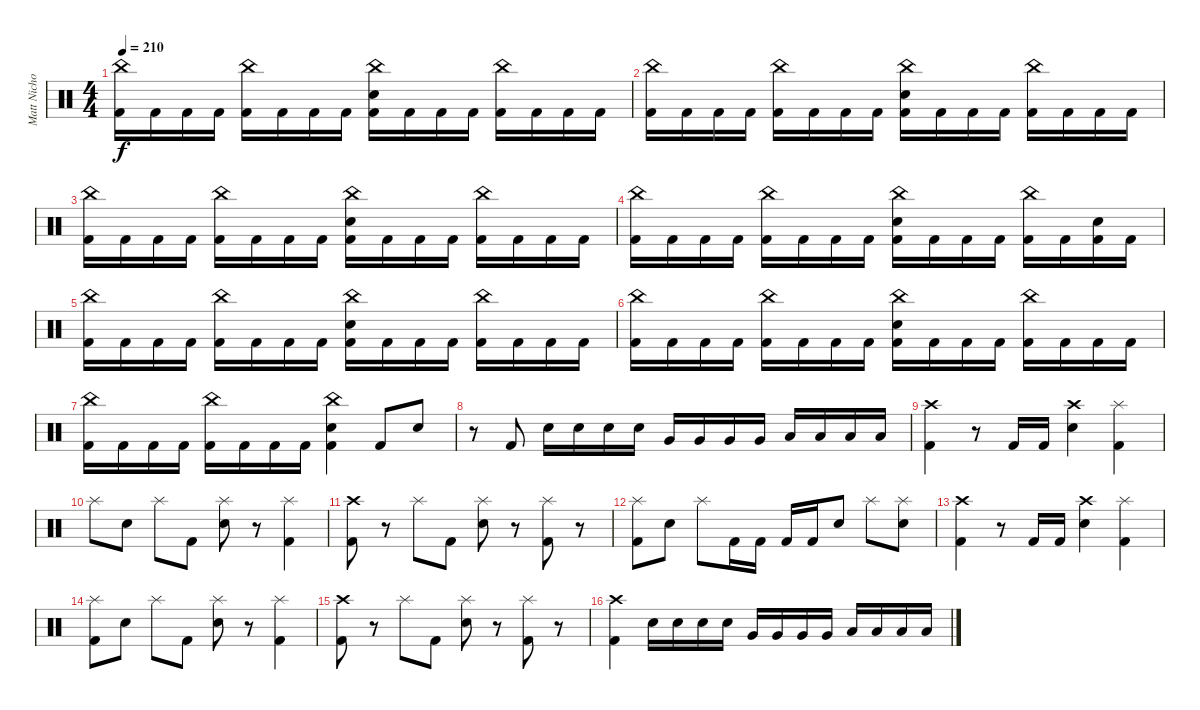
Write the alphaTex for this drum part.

\track ("Matt Nicholls" "Matt Nicho") {instrument percussion}
\staff {score}
\articulation defaults
\ts (4 4)
\tempo 210
\clef neutral
\ks c
("China (hit)" "Kick (hit) 2").16{dy f} "Kick (hit) 2".16 "Kick (hit) 2".16 "Kick (hit) 2".16 ("China (hit)" "Kick (hit) 2").16 "Kick (hit) 2".16 "Kick (hit) 2".16 "Kick (hit) 2".16 ("China (hit)" "Snare (hit) 2" "Kick (hit) 2").16 "Kick (hit) 2".16 "Kick (hit) 2".16 "Kick (hit) 2".16 ("China (hit)" "Kick (hit) 2").16 "Kick (hit) 2".16 "Kick (hit) 2".16 "Kick (hit) 2".16 |
("China (hit)" "Kick (hit) 2").16 "Kick (hit) 2".16 "Kick (hit) 2".16 "Kick (hit) 2".16 ("China (hit)" "Kick (hit) 2").16 "Kick (hit) 2".16 "Kick (hit) 2".16 "Kick (hit) 2".16 ("China (hit)" "Snare (hit) 2" "Kick (hit) 2").16 "Kick (hit) 2".16 "Kick (hit) 2".16 "Kick (hit) 2".16 ("China (hit)" "Kick (hit) 2").16 "Kick (hit) 2".16 "Kick (hit) 2".16 "Kick (hit) 2".16 |
("China (hit)" "Kick (hit) 2").16 "Kick (hit) 2".16 "Kick (hit) 2".16 "Kick (hit) 2".16 ("China (hit)" "Kick (hit) 2").16 "Kick (hit) 2".16 "Kick (hit) 2".16 "Kick (hit) 2".16 ("China (hit)" "Snare (hit) 2" "Kick (hit) 2").16 "Kick (hit) 2".16 "Kick (hit) 2".16 "Kick (hit) 2".16 ("China (hit)" "Kick (hit) 2").16 "Kick (hit) 2".16 "Kick (hit) 2".16 "Kick (hit) 2".16 |
("China (hit)" "Kick (hit) 2").16 "Kick (hit) 2".16 "Kick (hit) 2".16 "Kick (hit) 2".16 ("China (hit)" "Kick (hit) 2").16 "Kick (hit) 2".16 "Kick (hit) 2".16 "Kick (hit) 2".16 ("China (hit)" "Snare (hit) 2" "Kick (hit) 2").16 "Kick (hit) 2".16 "Kick (hit) 2".16 "Kick (hit) 2".16 ("China (hit)" "Kick (hit) 2").16 "Kick (hit) 2".16 ("Snare (hit) 2" "Kick (hit) 2").16 "Kick (hit) 2".16 |
("China (hit)" "Kick (hit) 2").16 "Kick (hit) 2".16 "Kick (hit) 2".16 "Kick (hit) 2".16 ("China (hit)" "Kick (hit) 2").16 "Kick (hit) 2".16 "Kick (hit) 2".16 "Kick (hit) 2".16 ("China (hit)" "Snare (hit) 2" "Kick (hit) 2").16 "Kick (hit) 2".16 "Kick (hit) 2".16 "Kick (hit) 2".16 ("China (hit)" "Kick (hit) 2").16 "Kick (hit) 2".16 "Kick (hit) 2".16 "Kick (hit) 2".16 |
("China (hit)" "Kick (hit) 2").16 "Kick (hit) 2".16 "Kick (hit) 2".16 "Kick (hit) 2".16 ("China (hit)" "Kick (hit) 2").16 "Kick (hit) 2".16 "Kick (hit) 2".16 "Kick (hit) 2".16 ("China (hit)" "Snare (hit) 2" "Kick (hit) 2").16 "Kick (hit) 2".16 "Kick (hit) 2".16 "Kick (hit) 2".16 ("China (hit)" "Kick (hit) 2").16 "Kick (hit) 2".16 "Kick (hit) 2".16 "Kick (hit) 2".16 |
("China (hit)" "Kick (hit) 2").16 "Kick (hit) 2".16 "Kick (hit) 2".16 "Kick (hit) 2".16 ("China (hit)" "Kick (hit) 2").16 "Kick (hit) 2".16 "Kick (hit) 2".16 "Kick (hit) 2".16 ("China (hit)" "Snare (hit) 2" "Kick (hit) 2").4 "Kick (hit) 2".8 "Snare (hit) 2".8 |
r.8 "Kick (hit) 2".8 "Snare (hit) 2".16 "Snare (hit) 2".16 "Snare (hit) 2".16 "Snare (hit) 2".16 "Very Low Tom (hit)".16 "Very Low Tom (hit)".16 "Very Low Tom (hit)".16 "Very Low Tom (hit)".16 "Low Floor Tom (hit)".16 "Low Floor Tom (hit)".16 "Low Floor Tom (hit)".16 "Low Floor Tom (hit)".16 |
("Crash high (hit)" "Kick (hit) 2").4 r.8 "Kick (hit) 2".16 "Kick (hit) 2".16 ("Crash high (hit)" "Snare (hit) 2").4 ("Splash (hit)" "Kick (hit) 2").4 |
"Splash (hit)".8 "Snare (hit) 2".8 "Splash (hit)".8 "Kick (hit) 2".8 ("Splash (hit)" "Snare (hit) 2").8 r.8 ("Splash (hit)" "Kick (hit) 2").4 |
("Crash high (hit)" "Kick (hit) 2").8 r.8 "Splash (hit)".8 "Kick (hit) 2".8 ("Splash (hit)" "Snare (hit) 2").8 r.8 ("Splash (hit)" "Kick (hit) 2").8 r.8 |
("Splash (hit)" "Kick (hit) 2").8 "Snare (hit) 2".8 "Splash (hit)".8 "Kick (hit) 2".16 "Kick (hit) 2".16 "Kick (hit) 2".16 "Kick (hit) 2".16 "Snare (hit) 2".8 "Splash (hit)".8 ("Splash (hit)" "Snare (hit) 2").8 |
("Crash high (hit)" "Kick (hit) 2").4 r.8 "Kick (hit) 2".16 "Kick (hit) 2".16 ("Crash high (hit)" "Snare (hit) 2").4 ("Splash (hit)" "Kick (hit) 2").4 |
("Splash (hit)" "Kick (hit) 2").8 "Snare (hit) 2".8 "Splash (hit)".8 "Kick (hit) 2".8 ("Splash (hit)" "Snare (hit) 2").8 r.8 ("Splash (hit)" "Kick (hit) 2").4 |
("Crash high (hit)" "Kick (hit) 2").8 r.8 "Splash (hit)".8 "Kick (hit) 2".8 ("Splash (hit)" "Snare (hit) 2").8 r.8 ("Splash (hit)" "Kick (hit) 2").8 r.8 |
("Crash high (hit)" "Kick (hit) 2").4 "Snare (hit) 2".16 "Snare (hit) 2".16 "Snare (hit) 2".16 "Snare (hit) 2".16 "Very Low Tom (hit)".16 "Very Low Tom (hit)".16 "Very Low Tom (hit)".16 "Very Low Tom (hit)".16 "Low Floor Tom (hit)".16 "Low Floor Tom (hit)".16 "Low Floor Tom (hit)".16 "Low Floor Tom (hit)".16
